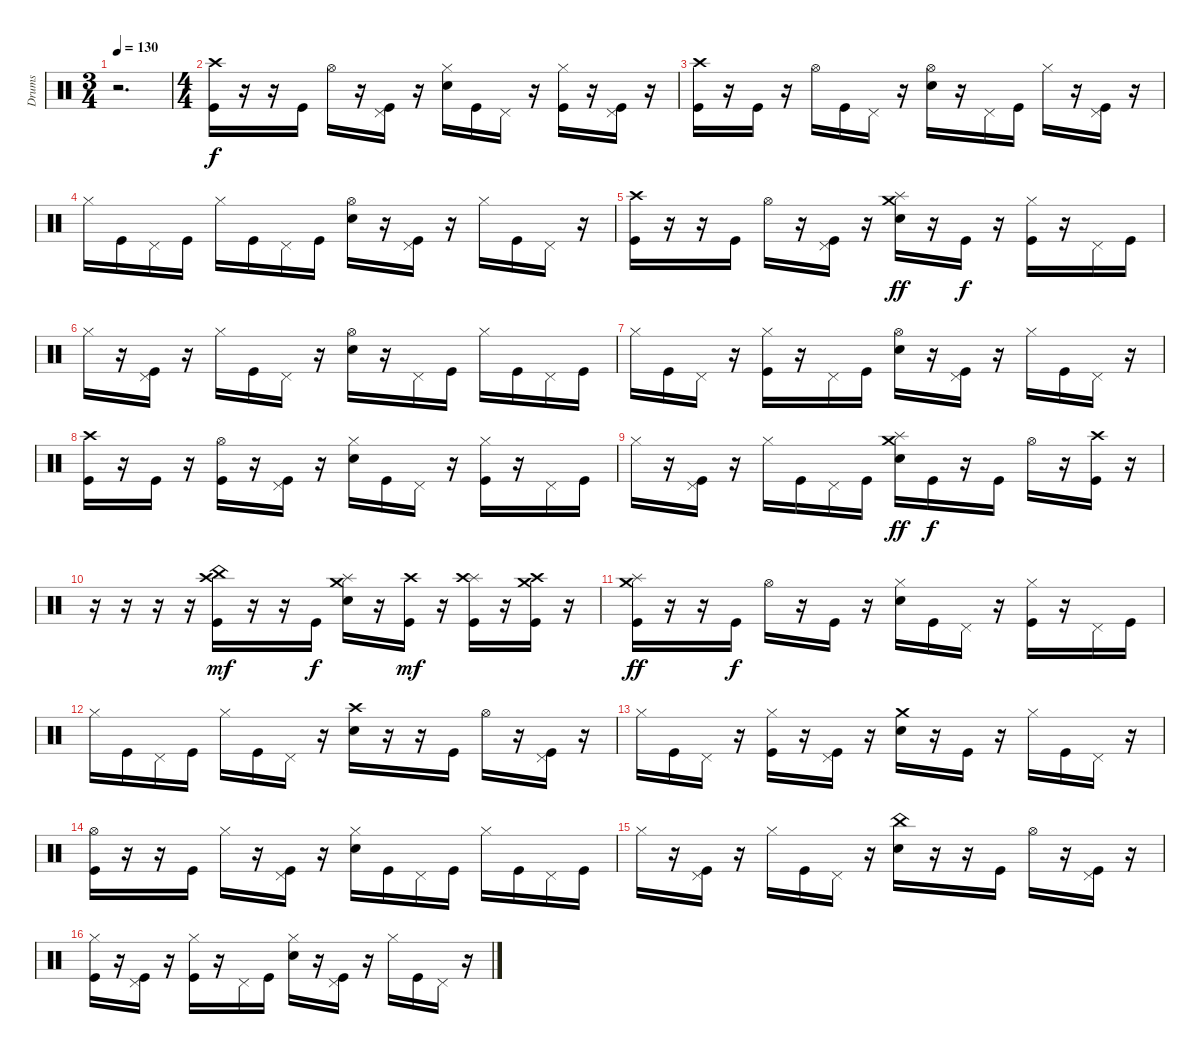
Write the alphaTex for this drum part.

\track ("Drums" "Drums") {instrument percussion}
\staff {score}
\articulation defaults
\ts (3 4)
\tempo 130
\clef neutral
\ks c
r.2{d dy mf} |
\ts (4 4)
("Crash high (hit)" "Kick (hit)").16{dy f} r.16 r.16 "Kick (hit)".16 "Hi-Hat (open)".16 r.16 ("Pedal Hi-Hat (hit)" "Kick (hit)").16 r.16 ("Hi-Hat (closed)" "Electric Snare (hit)").16 "Kick (hit)".16 "Pedal Hi-Hat (hit)".16 r.16 ("Hi-Hat (closed)" "Kick (hit)").16 r.16 ("Pedal Hi-Hat (hit)" "Kick (hit)").16 r.16 |
("Crash high (hit)" "Kick (hit)").16 r.16 "Kick (hit)".16 r.16 "Hi-Hat (open)".16 "Kick (hit)".16 "Pedal Hi-Hat (hit)".16 r.16 ("Hi-Hat (open)" "Electric Snare (hit)").16 r.16 "Pedal Hi-Hat (hit)".16 "Kick (hit)".16 "Hi-Hat (closed)".16 r.16 ("Pedal Hi-Hat (hit)" "Kick (hit)").16 r.16 |
"Hi-Hat (closed)".16 "Kick (hit)".16 "Pedal Hi-Hat (hit)".16 "Kick (hit)".16 "Hi-Hat (closed)".16 "Kick (hit)".16 "Pedal Hi-Hat (hit)".16 "Kick (hit)".16 ("Hi-Hat (open)" "Electric Snare (hit)").16 r.16 ("Pedal Hi-Hat (hit)" "Kick (hit)").16 r.16 "Hi-Hat (closed)".16 "Kick (hit)".16 "Pedal Hi-Hat (hit)".16 r.16 |
("Crash high (hit)" "Kick (hit)").16 r.16 r.16 "Kick (hit)".16 "Hi-Hat (open)".16 r.16 ("Pedal Hi-Hat (hit)" "Kick (hit)").16 r.16 ("Crash medium (hit)" "Splash (hit)" "Electric Snare (hit)").16{dy ff} r.16 "Kick (hit)".16{dy f} r.16 ("Hi-Hat (closed)" "Kick (hit)").16 r.16 "Pedal Hi-Hat (hit)".16 "Kick (hit)".16 |
"Hi-Hat (closed)".16 r.16 ("Pedal Hi-Hat (hit)" "Kick (hit)").16 r.16 "Hi-Hat (closed)".16 "Kick (hit)".16 "Pedal Hi-Hat (hit)".16 r.16 ("Hi-Hat (open)" "Electric Snare (hit)").16 r.16 "Pedal Hi-Hat (hit)".16 "Kick (hit)".16 "Hi-Hat (closed)".16 "Kick (hit)".16 "Pedal Hi-Hat (hit)".16 "Kick (hit)".16 |
"Hi-Hat (closed)".16 "Kick (hit)".16 "Pedal Hi-Hat (hit)".16 r.16 ("Hi-Hat (closed)" "Kick (hit)").16 r.16 "Pedal Hi-Hat (hit)".16 "Kick (hit)".16 ("Hi-Hat (open)" "Electric Snare (hit)").16 r.16 ("Pedal Hi-Hat (hit)" "Kick (hit)").16 r.16 "Hi-Hat (closed)".16 "Kick (hit)".16 "Pedal Hi-Hat (hit)".16 r.16 |
("Crash high (hit)" "Kick (hit)").16 r.16 "Kick (hit)".16 r.16 ("Hi-Hat (open)" "Kick (hit)").16 r.16 ("Pedal Hi-Hat (hit)" "Kick (hit)").16 r.16 ("Hi-Hat (closed)" "Electric Snare (hit)").16 "Kick (hit)".16 "Pedal Hi-Hat (hit)".16 r.16 ("Hi-Hat (closed)" "Kick (hit)").16 r.16 "Pedal Hi-Hat (hit)".16 "Kick (hit)".16 |
"Hi-Hat (closed)".16 r.16 ("Pedal Hi-Hat (hit)" "Kick (hit)").16 r.16 "Hi-Hat (closed)".16 "Kick (hit)".16 "Pedal Hi-Hat (hit)".16 "Kick (hit)".16 ("Crash medium (hit)" "Splash (hit)" "Electric Snare (hit)").16{dy ff} "Kick (hit)".16{dy f} r.16 "Kick (hit)".16 "Hi-Hat (open)".16 r.16 ("Crash high (hit)" "Kick (hit)").16 r.16 |
r.16 r.16 r.16 r.16 ("Crash high (hit)" "China (hit)" "Kick (hit)").16{dy mf} r.16 r.16 "Kick (hit)".16{dy f} ("Crash medium (hit)" "Splash (hit)" "Electric Snare (hit)").16 r.16 ("Crash high (hit)" "Kick (hit)").16{dy mf} r.16 ("Splash (hit)" "Crash high (hit)" "Kick (hit)").16 r.16 ("Crash medium (hit)" "Crash high (hit)" "Kick (hit)").16 r.16 |
("Splash (hit)" "Crash medium (hit)" "Kick (hit)").16{dy ff} r.16 r.16 "Kick (hit)".16{dy f} "Hi-Hat (open)".16 r.16 "Kick (hit)".16 r.16 ("Hi-Hat (closed)" "Electric Snare (hit)").16 "Kick (hit)".16 "Pedal Hi-Hat (hit)".16 r.16 ("Hi-Hat (closed)" "Kick (hit)").16 r.16 "Pedal Hi-Hat (hit)".16 "Kick (hit)".16 |
"Hi-Hat (closed)".16 "Kick (hit)".16 "Pedal Hi-Hat (hit)".16 "Kick (hit)".16 "Hi-Hat (closed)".16 "Kick (hit)".16 "Pedal Hi-Hat (hit)".16 r.16 ("Crash high (hit)" "Electric Snare (hit)").16 r.16 r.16 "Kick (hit)".16 "Hi-Hat (open)".16 r.16 ("Pedal Hi-Hat (hit)" "Kick (hit)").16 r.16 |
"Hi-Hat (closed)".16 "Kick (hit)".16 "Pedal Hi-Hat (hit)".16 r.16 ("Hi-Hat (closed)" "Kick (hit)").16 r.16 ("Pedal Hi-Hat (hit)" "Kick (hit)").16 r.16 ("Crash medium (hit)" "Electric Snare (hit)").16 r.16 "Kick (hit)".16 r.16 "Hi-Hat (closed)".16 "Kick (hit)".16 "Pedal Hi-Hat (hit)".16 r.16 |
("Hi-Hat (open)" "Kick (hit)").16 r.16 r.16 "Kick (hit)".16 "Hi-Hat (closed)".16 r.16 ("Pedal Hi-Hat (hit)" "Kick (hit)").16 r.16 ("Hi-Hat (closed)" "Electric Snare (hit)").16 "Kick (hit)".16 "Pedal Hi-Hat (hit)".16 "Kick (hit)".16 "Hi-Hat (closed)".16 "Kick (hit)".16 "Pedal Hi-Hat (hit)".16 "Kick (hit)".16 |
"Hi-Hat (closed)".16 r.16 ("Pedal Hi-Hat (hit)" "Kick (hit)").16 r.16 "Hi-Hat (closed)".16 "Kick (hit)".16 "Pedal Hi-Hat (hit)".16 r.16 ("China (hit)" "Electric Snare (hit)").16 r.16 r.16 "Kick (hit)".16 "Hi-Hat (open)".16 r.16 ("Pedal Hi-Hat (hit)" "Kick (hit)").16 r.16 |
("Hi-Hat (closed)" "Kick (hit)").16 r.16 ("Pedal Hi-Hat (hit)" "Kick (hit)").16 r.16 ("Hi-Hat (closed)" "Kick (hit)").16 r.16 "Pedal Hi-Hat (hit)".16 "Kick (hit)".16 ("Hi-Hat (closed)" "Electric Snare (hit)").16 r.16 ("Pedal Hi-Hat (hit)" "Kick (hit)").16 r.16 "Hi-Hat (closed)".16 "Kick (hit)".16 "Pedal Hi-Hat (hit)".16 r.16
